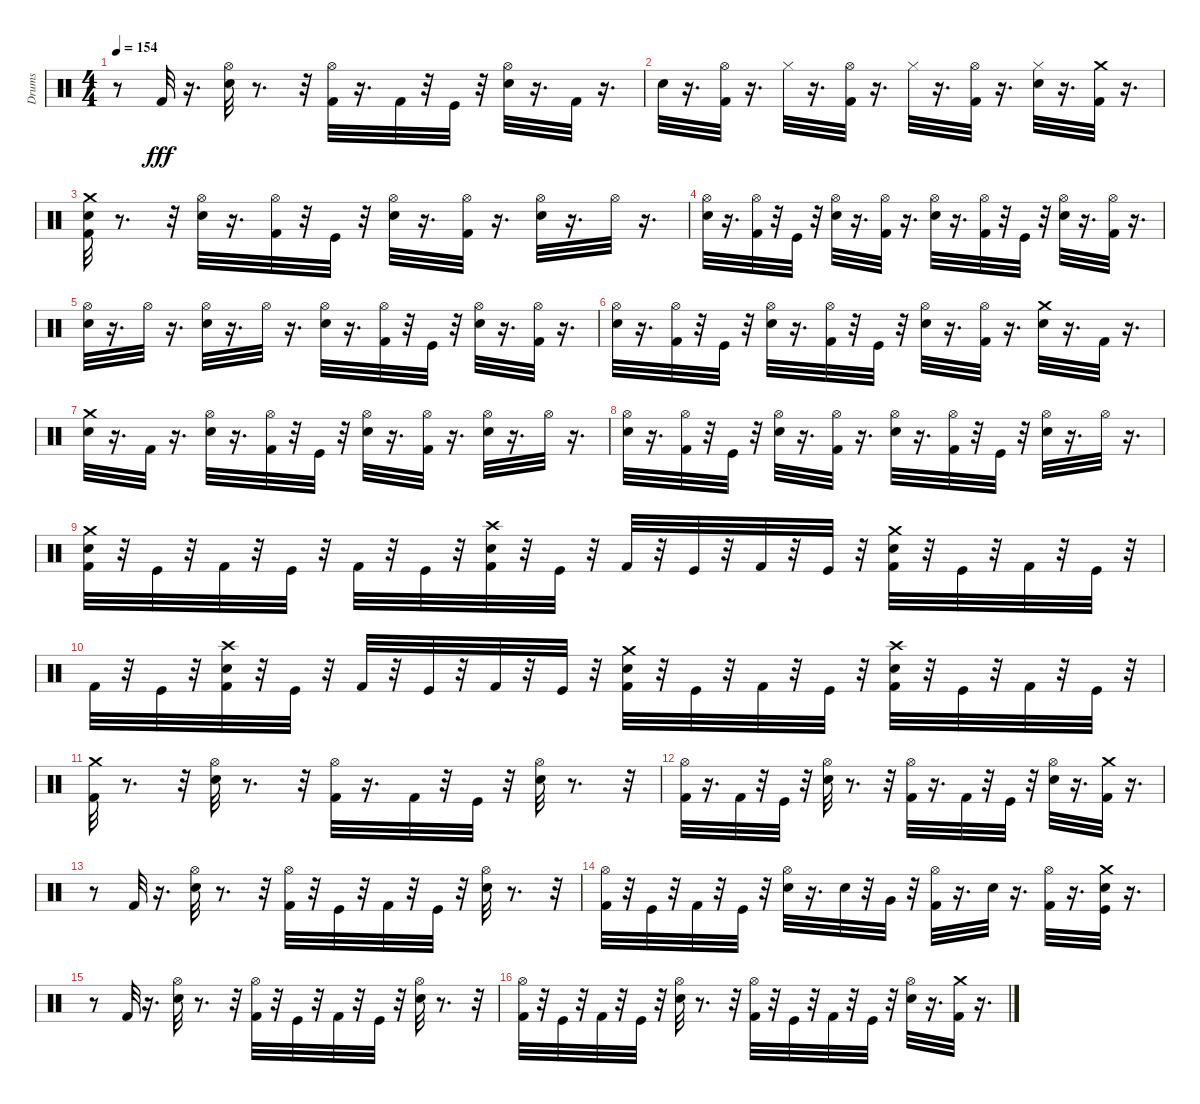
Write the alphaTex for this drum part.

\track ("Drums" "Drums") {instrument percussion}
\staff {score}
\articulation defaults
\ts (4 4)
\tempo 154
\clef neutral
\ks c
r.8{dy fff} "Kick (hit) 2".32 r.16{d} ("Snare (hit) 2" "Hi-Hat (open)").32 r.8{d} r.32 ("Kick (hit) 2" "Hi-Hat (open)").32 r.16{d} "Kick (hit) 2".32 r.32 "Kick (hit)".32 r.32 ("Snare (hit) 2" "Hi-Hat (open)").32 r.16{d} "Kick (hit) 2".32 r.16{d} |
"Snare (hit) 2".32 r.16{d} ("Kick (hit) 2" "Hi-Hat (open)").32 r.16{d} "Hi-Hat (closed)".32 r.16{d} ("Kick (hit) 2" "Hi-Hat (open)").32 r.16{d} "Hi-Hat (closed)".32 r.16{d} ("Kick (hit) 2" "Hi-Hat (open)").32 r.16{d} ("Snare (hit) 2" "Hi-Hat (closed)").32 r.16{d} ("Kick (hit) 2" "Crash medium (hit)").32 r.16{d} |
("Snare (hit) 2" "Kick (hit) 2" "Crash medium (hit)").32 r.8{d} r.32 ("Snare (hit) 2" "Hi-Hat (open)").32 r.16{d} ("Kick (hit) 2" "Hi-Hat (open)").32 r.32 "Kick (hit)".32 r.32 ("Snare (hit) 2" "Hi-Hat (open)").32 r.16{d} ("Kick (hit) 2" "Hi-Hat (open)").32 r.16{d} ("Snare (hit) 2" "Hi-Hat (open)").32 r.16{d} "Hi-Hat (open)".32 r.16{d} |
("Snare (hit) 2" "Hi-Hat (open)").32 r.16{d} ("Kick (hit) 2" "Hi-Hat (open)").32 r.32 "Kick (hit)".32 r.32 ("Snare (hit) 2" "Hi-Hat (open)").32 r.16{d} ("Kick (hit) 2" "Hi-Hat (open)").32 r.16{d} ("Snare (hit) 2" "Hi-Hat (open)").32 r.16{d} ("Kick (hit) 2" "Hi-Hat (open)").32 r.32 "Kick (hit)".32 r.32 ("Snare (hit) 2" "Hi-Hat (open)").32 r.16{d} ("Kick (hit) 2" "Hi-Hat (open)").32 r.16{d} |
("Snare (hit) 2" "Hi-Hat (open)").32 r.16{d} "Hi-Hat (open)".32 r.16{d} ("Snare (hit) 2" "Hi-Hat (open)").32 r.16{d} "Hi-Hat (open)".32 r.16{d} ("Snare (hit) 2" "Hi-Hat (open)").32 r.16{d} ("Kick (hit) 2" "Hi-Hat (open)").32 r.32 "Kick (hit)".32 r.32 ("Snare (hit) 2" "Hi-Hat (open)").32 r.16{d} ("Kick (hit) 2" "Hi-Hat (open)").32 r.16{d} |
("Snare (hit) 2" "Hi-Hat (open)").32 r.16{d} ("Kick (hit) 2" "Hi-Hat (open)").32 r.32 "Kick (hit)".32 r.32 ("Snare (hit) 2" "Hi-Hat (open)").32 r.16{d} ("Kick (hit) 2" "Hi-Hat (open)").32 r.32 "Kick (hit)".32 r.32 ("Snare (hit) 2" "Hi-Hat (open)").32 r.16{d} ("Kick (hit) 2" "Hi-Hat (open)").32 r.16{d} ("Snare (hit) 2" "Crash medium (hit)").32 r.16{d} "Kick (hit) 2".32 r.16{d} |
("Snare (hit) 2" "Crash medium (hit)").32 r.16{d} "Kick (hit) 2".32 r.16{d} ("Snare (hit) 2" "Hi-Hat (open)").32 r.16{d} ("Kick (hit) 2" "Hi-Hat (open)").32 r.32 "Kick (hit)".32 r.32 ("Snare (hit) 2" "Hi-Hat (open)").32 r.16{d} ("Kick (hit) 2" "Hi-Hat (open)").32 r.16{d} ("Snare (hit) 2" "Hi-Hat (open)").32 r.16{d} "Hi-Hat (open)".32 r.16{d} |
("Snare (hit) 2" "Hi-Hat (open)").32 r.16{d} ("Kick (hit) 2" "Hi-Hat (open)").32 r.32 "Kick (hit)".32 r.32 ("Snare (hit) 2" "Hi-Hat (open)").32 r.16{d} ("Kick (hit) 2" "Hi-Hat (open)").32 r.16{d} ("Snare (hit) 2" "Hi-Hat (open)").32 r.16{d} ("Kick (hit) 2" "Hi-Hat (open)").32 r.32 "Kick (hit)".32 r.32 ("Snare (hit) 2" "Hi-Hat (open)").32 r.16{d} "Hi-Hat (open)".32 r.16{d} |
("Crash medium (hit)" "Snare (hit) 2" "Kick (hit) 2").32 r.32 "Kick (hit)".32 r.32 "Kick (hit) 2".32 r.32 "Kick (hit)".32 r.32 "Kick (hit) 2".32 r.32 "Kick (hit)".32 r.32 ("Crash high (hit)" "Snare (hit) 2" "Kick (hit) 2").32 r.32 "Kick (hit)".32 r.32 "Kick (hit) 2".32 r.32 "Kick (hit)".32 r.32 "Kick (hit) 2".32 r.32 "Kick (hit)".32 r.32 ("Crash medium (hit)" "Snare (hit) 2" "Kick (hit) 2").32 r.32 "Kick (hit)".32 r.32 "Kick (hit) 2".32 r.32 "Kick (hit)".32 r.32 |
"Kick (hit) 2".32 r.32 "Kick (hit)".32 r.32 ("Crash high (hit)" "Snare (hit) 2" "Kick (hit) 2").32 r.32 "Kick (hit)".32 r.32 "Kick (hit) 2".32 r.32 "Kick (hit)".32 r.32 "Kick (hit) 2".32 r.32 "Kick (hit)".32 r.32 ("Crash medium (hit)" "Snare (hit) 2" "Kick (hit) 2").32 r.32 "Kick (hit)".32 r.32 "Kick (hit) 2".32 r.32 "Kick (hit)".32 r.32 ("Crash high (hit)" "Snare (hit) 2" "Kick (hit) 2").32 r.32 "Kick (hit)".32 r.32 "Kick (hit) 2".32 r.32 "Kick (hit)".32 r.32 |
("Kick (hit) 2" "Crash medium (hit)").32 r.8{d} r.32 ("Snare (hit) 2" "Hi-Hat (open)").32 r.8{d} r.32 ("Kick (hit) 2" "Hi-Hat (open)").32 r.16{d} "Kick (hit) 2".32 r.32 "Kick (hit)".32 r.32 ("Snare (hit) 2" "Hi-Hat (open)").32 r.8{d} r.32 |
("Kick (hit) 2" "Hi-Hat (open)").32 r.16{d} "Kick (hit) 2".32 r.32 "Kick (hit)".32 r.32 ("Snare (hit) 2" "Hi-Hat (open)").32 r.8{d} r.32 ("Kick (hit) 2" "Hi-Hat (open)").32 r.16{d} "Kick (hit) 2".32 r.32 "Kick (hit)".32 r.32 ("Snare (hit) 2" "Hi-Hat (open)").32 r.16{d} ("Kick (hit) 2" "Crash medium (hit)").32 r.16{d} |
r.8 "Kick (hit) 2".32 r.16{d} ("Snare (hit) 2" "Hi-Hat (open)").32 r.8{d} r.32 ("Kick (hit) 2" "Hi-Hat (open)").32 r.32 "Kick (hit)".32 r.32 "Kick (hit) 2".32 r.32 "Kick (hit)".32 r.32 ("Snare (hit) 2" "Hi-Hat (open)").32 r.8{d} r.32 |
("Kick (hit) 2" "Hi-Hat (open)").32 r.32 "Kick (hit)".32 r.32 "Kick (hit) 2".32 r.32 "Kick (hit)".32 r.32 ("Snare (hit) 2" "Hi-Hat (open)").32 r.16{d} "Snare (hit) 2".32 r.32 "Very Low Tom (hit)".32 r.32 ("Kick (hit) 2" "Hi-Hat (open)").32 r.16{d} "Snare (hit) 2".32 r.16{d} ("Kick (hit) 2" "Hi-Hat (open)").32 r.16{d} ("Snare (hit) 2" "Kick (hit)" "Crash medium (hit)").32 r.16{d} |
r.8 "Kick (hit) 2".32 r.16{d} ("Snare (hit) 2" "Hi-Hat (open)").32 r.8{d} r.32 ("Kick (hit) 2" "Hi-Hat (open)").32 r.32 "Kick (hit)".32 r.32 "Kick (hit) 2".32 r.32 "Kick (hit)".32 r.32 ("Snare (hit) 2" "Hi-Hat (open)").32 r.8{d} r.32 |
("Kick (hit) 2" "Hi-Hat (open)").32 r.32 "Kick (hit)".32 r.32 "Kick (hit) 2".32 r.32 "Kick (hit)".32 r.32 ("Snare (hit) 2" "Hi-Hat (open)").32 r.8{d} r.32 ("Kick (hit) 2" "Hi-Hat (open)").32 r.32 "Kick (hit)".32 r.32 "Kick (hit) 2".32 r.32 "Kick (hit)".32 r.32 ("Snare (hit) 2" "Hi-Hat (open)").32 r.16{d} ("Kick (hit) 2" "Crash medium (hit)").32 r.16{d}
